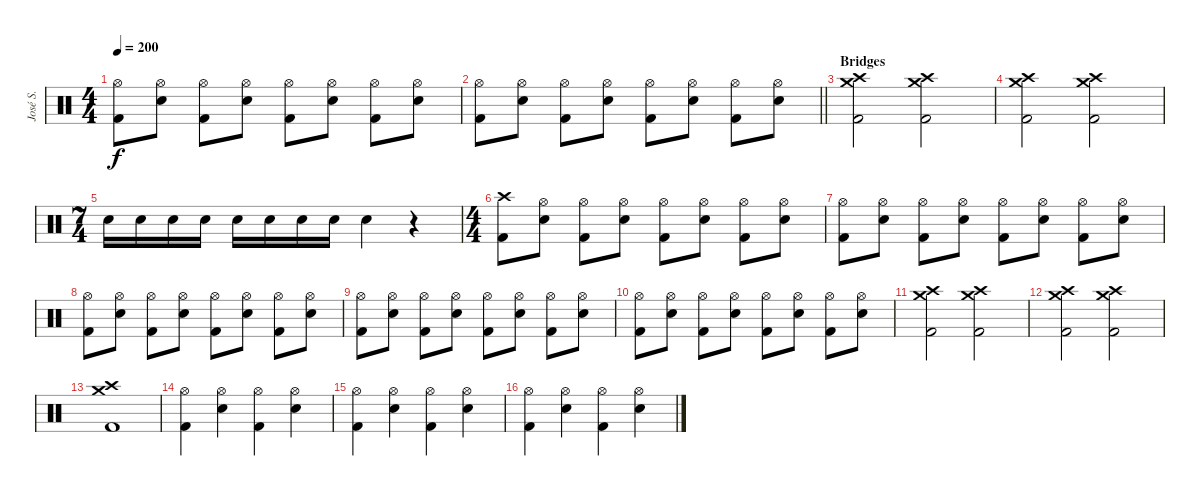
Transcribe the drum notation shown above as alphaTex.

\track ("José S." "José S.") {instrument percussion}
\staff {score}
\articulation defaults
\ts (4 4)
\tempo 200
\clef neutral
\ks c
("Hi-Hat (open)" "Kick (hit) 2").8{dy f} ("Hi-Hat (open)" "Electric Snare (hit)").8 ("Hi-Hat (open)" "Kick (hit) 2").8 ("Hi-Hat (open)" "Electric Snare (hit)").8 ("Hi-Hat (open)" "Kick (hit) 2").8 ("Hi-Hat (open)" "Electric Snare (hit)").8 ("Hi-Hat (open)" "Kick (hit) 2").8 ("Hi-Hat (open)" "Electric Snare (hit)").8 |
\barLineRight lightlight
("Hi-Hat (open)" "Kick (hit) 2").8 ("Hi-Hat (open)" "Electric Snare (hit)").8 ("Hi-Hat (open)" "Kick (hit) 2").8 ("Hi-Hat (open)" "Electric Snare (hit)").8 ("Hi-Hat (open)" "Kick (hit) 2").8 ("Hi-Hat (open)" "Electric Snare (hit)").8 ("Hi-Hat (open)" "Kick (hit) 2").8 ("Hi-Hat (open)" "Electric Snare (hit)").8 |
\section ("" "Bridges")
("Crash high (hit)" "Crash medium (hit)" "Kick (hit) 2").2 ("Crash high (hit)" "Crash medium (hit)" "Kick (hit) 2").2 |
("Crash high (hit)" "Crash medium (hit)" "Kick (hit) 2").2 ("Crash high (hit)" "Crash medium (hit)" "Kick (hit) 2").2 |
\ts (7 4)
"Electric Snare (hit)".16 "Electric Snare (hit)".16 "Electric Snare (hit)".16 "Electric Snare (hit)".16 "Electric Snare (hit)".16 "Electric Snare (hit)".16 "Electric Snare (hit)".16 "Electric Snare (hit)".16 "Electric Snare (hit)".4 r.4 |
\ts (4 4)
("Crash high (hit)" "Kick (hit) 2").8 ("Hi-Hat (open)" "Electric Snare (hit)").8 ("Hi-Hat (open)" "Kick (hit) 2").8 ("Hi-Hat (open)" "Electric Snare (hit)").8 ("Hi-Hat (open)" "Kick (hit) 2").8 ("Hi-Hat (open)" "Electric Snare (hit)").8 ("Hi-Hat (open)" "Kick (hit) 2").8 ("Hi-Hat (open)" "Electric Snare (hit)").8 |
("Hi-Hat (open)" "Kick (hit) 2").8 ("Hi-Hat (open)" "Electric Snare (hit)").8 ("Hi-Hat (open)" "Kick (hit) 2").8 ("Hi-Hat (open)" "Electric Snare (hit)").8 ("Hi-Hat (open)" "Kick (hit) 2").8 ("Hi-Hat (open)" "Electric Snare (hit)").8 ("Hi-Hat (open)" "Kick (hit) 2").8 ("Hi-Hat (open)" "Electric Snare (hit)").8 |
("Hi-Hat (open)" "Kick (hit) 2").8 ("Hi-Hat (open)" "Electric Snare (hit)").8 ("Hi-Hat (open)" "Kick (hit) 2").8 ("Hi-Hat (open)" "Electric Snare (hit)").8 ("Hi-Hat (open)" "Kick (hit) 2").8 ("Hi-Hat (open)" "Electric Snare (hit)").8 ("Hi-Hat (open)" "Kick (hit) 2").8 ("Hi-Hat (open)" "Electric Snare (hit)").8 |
("Hi-Hat (open)" "Kick (hit) 2").8 ("Hi-Hat (open)" "Electric Snare (hit)").8 ("Hi-Hat (open)" "Kick (hit) 2").8 ("Hi-Hat (open)" "Electric Snare (hit)").8 ("Hi-Hat (open)" "Kick (hit) 2").8 ("Hi-Hat (open)" "Electric Snare (hit)").8 ("Hi-Hat (open)" "Kick (hit) 2").8 ("Hi-Hat (open)" "Electric Snare (hit)").8 |
("Hi-Hat (open)" "Kick (hit) 2").8 ("Hi-Hat (open)" "Electric Snare (hit)").8 ("Hi-Hat (open)" "Kick (hit) 2").8 ("Hi-Hat (open)" "Electric Snare (hit)").8 ("Hi-Hat (open)" "Kick (hit) 2").8 ("Hi-Hat (open)" "Electric Snare (hit)").8 ("Hi-Hat (open)" "Kick (hit) 2").8 ("Hi-Hat (open)" "Electric Snare (hit)").8 |
("Crash high (hit)" "Crash medium (hit)" "Kick (hit) 2").2 ("Crash high (hit)" "Crash medium (hit)" "Kick (hit) 2").2 |
("Crash high (hit)" "Crash medium (hit)" "Kick (hit) 2").2 ("Crash high (hit)" "Crash medium (hit)" "Kick (hit) 2").2 |
("Crash high (hit)" "Crash medium (hit)" "Kick (hit) 2").1 |
("Hi-Hat (open)" "Kick (hit) 2").4 ("Hi-Hat (open)" "Electric Snare (hit)").4 ("Hi-Hat (open)" "Kick (hit) 2").4 ("Hi-Hat (open)" "Electric Snare (hit)").4 |
("Hi-Hat (open)" "Kick (hit) 2").4 ("Hi-Hat (open)" "Electric Snare (hit)").4 ("Hi-Hat (open)" "Kick (hit) 2").4 ("Hi-Hat (open)" "Electric Snare (hit)").4 |
("Hi-Hat (open)" "Kick (hit) 2").4 ("Hi-Hat (open)" "Electric Snare (hit)").4 ("Hi-Hat (open)" "Kick (hit) 2").4 ("Hi-Hat (open)" "Electric Snare (hit)").4
